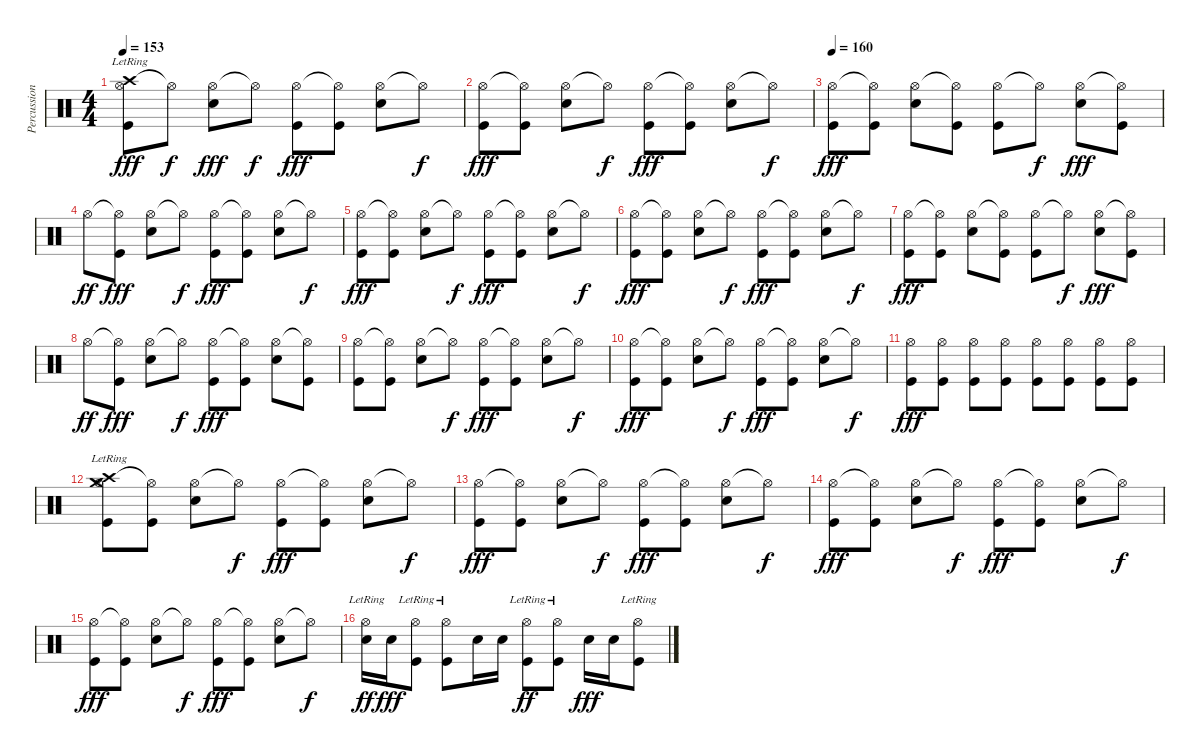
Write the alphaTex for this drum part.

\track ("Percussion" "Percussion") {instrument percussion}
\staff {score}
\articulation defaults
\ts (4 4)
\tempo 153
\clef neutral
\ks c
("Crash high (hit)"{lr} "Hi-Hat (open)" "Kick (hit)").8{dy fff} "Hi-Hat (open)"{t}.8{dy f} ("Hi-Hat (open)" "Snare (hit) 2").8{dy fff} "Hi-Hat (open)"{t}.8{dy f} ("Hi-Hat (open)" "Kick (hit)").8{dy fff} ("Hi-Hat (open)"{t} "Kick (hit)").8 ("Hi-Hat (open)" "Snare (hit) 2").8 "Hi-Hat (open)"{t}.8{dy f} |
("Hi-Hat (open)" "Kick (hit)").8{dy fff} ("Hi-Hat (open)"{t} "Kick (hit)").8 ("Hi-Hat (open)" "Snare (hit) 2").8 "Hi-Hat (open)"{t}.8{dy f} ("Hi-Hat (open)" "Kick (hit)").8{dy fff} ("Hi-Hat (open)"{t} "Kick (hit)").8 ("Hi-Hat (open)" "Snare (hit) 2").8 "Hi-Hat (open)"{t}.8{dy f} |
\tempo 160
("Hi-Hat (open)" "Kick (hit)").8{dy fff} ("Hi-Hat (open)"{t} "Kick (hit)").8 ("Hi-Hat (open)" "Snare (hit) 2").8 ("Hi-Hat (open)"{t} "Kick (hit)").8 ("Hi-Hat (open)" "Kick (hit)").8 "Hi-Hat (open)"{t}.8{dy f} ("Hi-Hat (open)" "Snare (hit) 2").8{dy fff} ("Hi-Hat (open)"{t} "Kick (hit)").8 |
"Hi-Hat (open)".8{dy ff} ("Hi-Hat (open)"{t} "Kick (hit)").8{dy fff} ("Hi-Hat (open)" "Snare (hit) 2").8 "Hi-Hat (open)"{t}.8{dy f} ("Hi-Hat (open)" "Kick (hit)").8{dy fff} ("Hi-Hat (open)"{t} "Kick (hit)").8 ("Hi-Hat (open)" "Snare (hit) 2").8 "Hi-Hat (open)"{t}.8{dy f} |
("Hi-Hat (open)" "Kick (hit)").8{dy fff} ("Hi-Hat (open)"{t} "Kick (hit)").8 ("Hi-Hat (open)" "Snare (hit) 2").8 "Hi-Hat (open)"{t}.8{dy f} ("Hi-Hat (open)" "Kick (hit)").8{dy fff} ("Hi-Hat (open)"{t} "Kick (hit)").8 ("Hi-Hat (open)" "Snare (hit) 2").8 "Hi-Hat (open)"{t}.8{dy f} |
("Hi-Hat (open)" "Kick (hit)").8{dy fff} ("Hi-Hat (open)"{t} "Kick (hit)").8 ("Hi-Hat (open)" "Snare (hit) 2").8 "Hi-Hat (open)"{t}.8{dy f} ("Hi-Hat (open)" "Kick (hit)").8{dy fff} ("Hi-Hat (open)"{t} "Kick (hit)").8 ("Hi-Hat (open)" "Snare (hit) 2").8 "Hi-Hat (open)"{t}.8{dy f} |
("Hi-Hat (open)" "Kick (hit)").8{dy fff} ("Hi-Hat (open)"{t} "Kick (hit)").8 ("Hi-Hat (open)" "Snare (hit) 2").8 ("Hi-Hat (open)"{t} "Kick (hit)").8 ("Hi-Hat (open)" "Kick (hit)").8 "Hi-Hat (open)"{t}.8{dy f} ("Hi-Hat (open)" "Snare (hit) 2").8{dy fff} ("Hi-Hat (open)"{t} "Kick (hit)").8 |
"Hi-Hat (open)".8{dy ff} ("Hi-Hat (open)"{t} "Kick (hit)").8{dy fff} ("Hi-Hat (open)" "Snare (hit) 2").8 "Hi-Hat (open)"{t}.8{dy f} ("Hi-Hat (open)" "Kick (hit)").8{dy fff} ("Hi-Hat (open)"{t} "Kick (hit)").8 ("Hi-Hat (open)" "Snare (hit) 2").8 ("Hi-Hat (open)"{t} "Kick (hit)").8 |
("Hi-Hat (open)" "Kick (hit)").8 ("Hi-Hat (open)"{t} "Kick (hit)").8 ("Hi-Hat (open)" "Snare (hit) 2").8 "Hi-Hat (open)"{t}.8{dy f} ("Hi-Hat (open)" "Kick (hit)").8{dy fff} ("Hi-Hat (open)"{t} "Kick (hit)").8 ("Hi-Hat (open)" "Snare (hit) 2").8 "Hi-Hat (open)"{t}.8{dy f} |
("Hi-Hat (open)" "Kick (hit)").8{dy fff} ("Hi-Hat (open)"{t} "Kick (hit)").8 ("Hi-Hat (open)" "Snare (hit) 2").8 "Hi-Hat (open)"{t}.8{dy f} ("Hi-Hat (open)" "Kick (hit)").8{dy fff} ("Hi-Hat (open)"{t} "Kick (hit)").8 ("Hi-Hat (open)" "Snare (hit) 2").8 "Hi-Hat (open)"{t}.8{dy f} |
("Hi-Hat (open)" "Kick (hit)").8{dy fff} ("Hi-Hat (open)" "Kick (hit)").8 ("Hi-Hat (open)" "Kick (hit)").8 ("Hi-Hat (open)" "Kick (hit)").8 ("Hi-Hat (open)" "Kick (hit)").8 ("Hi-Hat (open)" "Kick (hit)").8 ("Hi-Hat (open)" "Kick (hit)").8 ("Hi-Hat (open)" "Kick (hit)").8 |
("Crash high (hit)"{lr} "Crash medium (hit)" "Hi-Hat (open)" "Kick (hit)").8 ("Hi-Hat (open)"{t} "Kick (hit)").8 ("Hi-Hat (open)" "Snare (hit) 2").8 "Hi-Hat (open)"{t}.8{dy f} ("Hi-Hat (open)" "Kick (hit)").8{dy fff} ("Hi-Hat (open)"{t} "Kick (hit)").8 ("Hi-Hat (open)" "Snare (hit) 2").8 "Hi-Hat (open)"{t}.8{dy f} |
("Hi-Hat (open)" "Kick (hit)").8{dy fff} ("Hi-Hat (open)"{t} "Kick (hit)").8 ("Hi-Hat (open)" "Snare (hit) 2").8 "Hi-Hat (open)"{t}.8{dy f} ("Hi-Hat (open)" "Kick (hit)").8{dy fff} ("Hi-Hat (open)"{t} "Kick (hit)").8 ("Hi-Hat (open)" "Snare (hit) 2").8 "Hi-Hat (open)"{t}.8{dy f} |
("Hi-Hat (open)" "Kick (hit)").8{dy fff} ("Hi-Hat (open)"{t} "Kick (hit)").8 ("Hi-Hat (open)" "Snare (hit) 2").8 "Hi-Hat (open)"{t}.8{dy f} ("Hi-Hat (open)" "Kick (hit)").8{dy fff} ("Hi-Hat (open)"{t} "Kick (hit)").8 ("Hi-Hat (open)" "Snare (hit) 2").8 "Hi-Hat (open)"{t}.8{dy f} |
("Hi-Hat (open)" "Kick (hit)").8{dy fff} ("Hi-Hat (open)"{t} "Kick (hit)").8 ("Hi-Hat (open)" "Snare (hit) 2").8 "Hi-Hat (open)"{t}.8{dy f} ("Hi-Hat (open)" "Kick (hit)").8{dy fff} ("Hi-Hat (open)"{t} "Kick (hit)").8 ("Hi-Hat (open)" "Snare (hit) 2").8 "Hi-Hat (open)"{t}.8{dy f} |
("Snare (hit) 2" "Hi-Hat (open)"{lr}).16{dy ff} "Snare (hit) 2".16{dy fff} ("Hi-Hat (open)"{lr} "Kick (hit)").8 ("Hi-Hat (open)"{lr} "Kick (hit)").8 "Snare (hit) 2".16 "Snare (hit) 2".16 ("Kick (hit)"{lr} "Hi-Hat (open)").8{dy ff} ("Kick (hit)"{lr} "Hi-Hat (open)").8 "Snare (hit) 2".16{dy fff} "Snare (hit) 2".16 ("Hi-Hat (open)"{lr} "Kick (hit)").8
